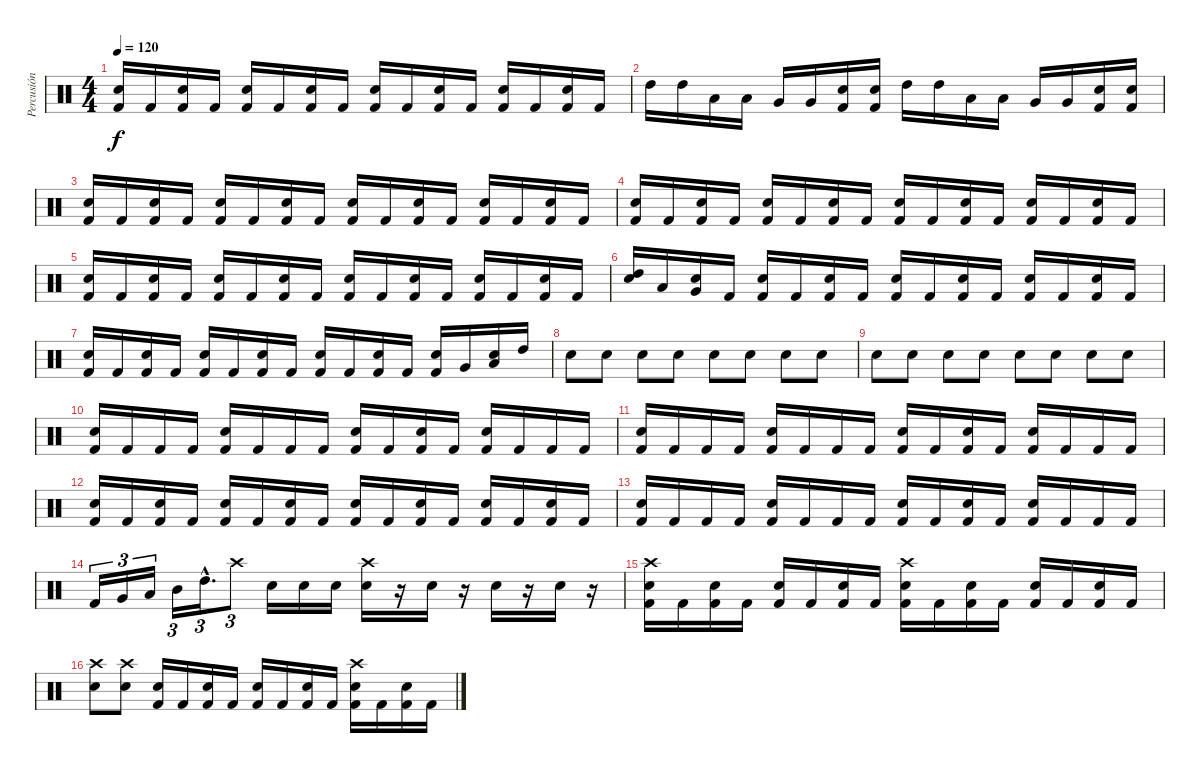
\track ("Percusión" "Percusión") {instrument percussion}
\staff {score}
\articulation defaults
\ts (4 4)
\tempo 120
\clef neutral
\ks c
("Kick (hit) 2" "Electric Snare (hit)").16{dy f} "Kick (hit) 2".16 ("Kick (hit) 2" "Electric Snare (hit)").16 "Kick (hit) 2".16 ("Kick (hit) 2" "Electric Snare (hit)").16 "Kick (hit) 2".16 ("Kick (hit) 2" "Electric Snare (hit)").16 "Kick (hit) 2".16 ("Kick (hit) 2" "Electric Snare (hit)").16 "Kick (hit) 2".16 ("Kick (hit) 2" "Electric Snare (hit)").16 "Kick (hit) 2".16 ("Kick (hit) 2" "Electric Snare (hit)").16 "Kick (hit) 2".16 ("Kick (hit) 2" "Electric Snare (hit)").16 "Kick (hit) 2".16 |
"High Tom (hit)".16 "High Tom (hit)".16 "Low Tom (hit)".16 "Low Tom (hit)".16 "Very Low Tom (hit)".16 "Very Low Tom (hit)".16 ("Kick (hit) 2" "Electric Snare (hit)").16 ("Kick (hit) 2" "Electric Snare (hit)").16 "High Tom (hit)".16 "High Tom (hit)".16 "Low Tom (hit)".16 "Low Tom (hit)".16 "Very Low Tom (hit)".16 "Very Low Tom (hit)".16 ("Kick (hit) 2" "Electric Snare (hit)").16 ("Kick (hit) 2" "Electric Snare (hit)").16 |
("Kick (hit) 2" "Electric Snare (hit)").16 "Kick (hit) 2".16 ("Kick (hit) 2" "Electric Snare (hit)").16 "Kick (hit) 2".16 ("Kick (hit) 2" "Electric Snare (hit)").16 "Kick (hit) 2".16 ("Kick (hit) 2" "Electric Snare (hit)").16 "Kick (hit) 2".16 ("Kick (hit) 2" "Electric Snare (hit)").16 "Kick (hit) 2".16 ("Kick (hit) 2" "Electric Snare (hit)").16 "Kick (hit) 2".16 ("Kick (hit) 2" "Electric Snare (hit)").16 "Kick (hit) 2".16 ("Kick (hit) 2" "Electric Snare (hit)").16 "Kick (hit) 2".16 |
("Kick (hit) 2" "Electric Snare (hit)").16 "Kick (hit) 2".16 ("Kick (hit) 2" "Electric Snare (hit)").16 "Kick (hit) 2".16 ("Kick (hit) 2" "Electric Snare (hit)").16 "Kick (hit) 2".16 ("Kick (hit) 2" "Electric Snare (hit)").16 "Kick (hit) 2".16 ("Kick (hit) 2" "Electric Snare (hit)").16 "Kick (hit) 2".16 ("Kick (hit) 2" "Electric Snare (hit)").16 "Kick (hit) 2".16 ("Kick (hit) 2" "Electric Snare (hit)").16 "Kick (hit) 2".16 ("Kick (hit) 2" "Electric Snare (hit)").16 "Kick (hit) 2".16 |
("Kick (hit) 2" "Electric Snare (hit)").16 "Kick (hit) 2".16 ("Kick (hit) 2" "Electric Snare (hit)").16 "Kick (hit) 2".16 ("Kick (hit) 2" "Electric Snare (hit)").16 "Kick (hit) 2".16 ("Kick (hit) 2" "Electric Snare (hit)").16 "Kick (hit) 2".16 ("Kick (hit) 2" "Electric Snare (hit)").16 "Kick (hit) 2".16 ("Kick (hit) 2" "Electric Snare (hit)").16 "Kick (hit) 2".16 ("Kick (hit) 2" "Electric Snare (hit)").16 "Kick (hit) 2".16 ("Kick (hit) 2" "Electric Snare (hit)").16 "Kick (hit) 2".16 |
("High Tom (hit)" "Electric Snare (hit)").16 "Low Tom (hit)".16 ("Very Low Tom (hit)" "Electric Snare (hit)").16 "Kick (hit) 2".16 ("Kick (hit) 2" "Electric Snare (hit)").16 "Kick (hit) 2".16 ("Kick (hit) 2" "Electric Snare (hit)").16 "Kick (hit) 2".16 ("Kick (hit) 2" "Electric Snare (hit)").16 "Kick (hit) 2".16 ("Kick (hit) 2" "Electric Snare (hit)").16 "Kick (hit) 2".16 ("Kick (hit) 2" "Electric Snare (hit)").16 "Kick (hit) 2".16 ("Kick (hit) 2" "Electric Snare (hit)").16 "Kick (hit) 2".16 |
("Kick (hit) 2" "Electric Snare (hit)").16 "Kick (hit) 2".16 ("Kick (hit) 2" "Electric Snare (hit)").16 "Kick (hit) 2".16 ("Kick (hit) 2" "Electric Snare (hit)").16 "Kick (hit) 2".16 ("Kick (hit) 2" "Electric Snare (hit)").16 "Kick (hit) 2".16 ("Kick (hit) 2" "Electric Snare (hit)").16 "Kick (hit) 2".16 ("Kick (hit) 2" "Electric Snare (hit)").16 "Kick (hit) 2".16 ("Kick (hit) 2" "Electric Snare (hit)").16 "Very Low Tom (hit)".16 ("Low Tom (hit)" "Electric Snare (hit)").16 "High Tom (hit)".16 |
"Electric Snare (hit)".8 "Electric Snare (hit)".8 "Electric Snare (hit)".8 "Electric Snare (hit)".8 "Electric Snare (hit)".8 "Electric Snare (hit)".8 "Electric Snare (hit)".8 "Electric Snare (hit)".8 |
"Electric Snare (hit)".8 "Electric Snare (hit)".8 "Electric Snare (hit)".8 "Electric Snare (hit)".8 "Electric Snare (hit)".8 "Electric Snare (hit)".8 "Electric Snare (hit)".8 "Electric Snare (hit)".8 |
("Kick (hit) 2" "Electric Snare (hit)").16 "Kick (hit) 2".16 "Kick (hit) 2".16 "Kick (hit) 2".16 ("Kick (hit) 2" "Electric Snare (hit)").16 "Kick (hit) 2".16 "Kick (hit) 2".16 "Kick (hit) 2".16 ("Kick (hit) 2" "Electric Snare (hit)").16 "Kick (hit) 2".16 ("Kick (hit) 2" "Electric Snare (hit)").16 "Kick (hit) 2".16 ("Kick (hit) 2" "Electric Snare (hit)").16 "Kick (hit) 2".16 "Kick (hit) 2".16 "Kick (hit) 2".16 |
("Kick (hit) 2" "Electric Snare (hit)").16 "Kick (hit) 2".16 "Kick (hit) 2".16 "Kick (hit) 2".16 ("Kick (hit) 2" "Electric Snare (hit)").16 "Kick (hit) 2".16 "Kick (hit) 2".16 "Kick (hit) 2".16 ("Kick (hit) 2" "Electric Snare (hit)").16 "Kick (hit) 2".16 ("Kick (hit) 2" "Electric Snare (hit)").16 "Kick (hit) 2".16 ("Kick (hit) 2" "Electric Snare (hit)").16 "Kick (hit) 2".16 "Kick (hit) 2".16 "Kick (hit) 2".16 |
("Kick (hit) 2" "Electric Snare (hit)").16 "Kick (hit) 2".16 ("Kick (hit) 2" "Electric Snare (hit)").16 "Kick (hit) 2".16 ("Kick (hit) 2" "Electric Snare (hit)").16 "Kick (hit) 2".16 ("Kick (hit) 2" "Electric Snare (hit)").16 "Kick (hit) 2".16 ("Kick (hit) 2" "Electric Snare (hit)").16 "Kick (hit) 2".16 ("Kick (hit) 2" "Electric Snare (hit)").16 "Kick (hit) 2".16 ("Kick (hit) 2" "Electric Snare (hit)").16 "Kick (hit) 2".16 ("Kick (hit) 2" "Electric Snare (hit)").16 "Kick (hit) 2".16 |
("Kick (hit) 2" "Electric Snare (hit)").16 "Kick (hit) 2".16 "Kick (hit) 2".16 "Kick (hit) 2".16 ("Kick (hit) 2" "Electric Snare (hit)").16 "Kick (hit) 2".16 "Kick (hit) 2".16 "Kick (hit) 2".16 ("Kick (hit) 2" "Electric Snare (hit)").16 "Kick (hit) 2".16 ("Kick (hit) 2" "Electric Snare (hit)").16 "Kick (hit) 2".16 ("Kick (hit) 2" "Electric Snare (hit)").16 "Kick (hit) 2".16 "Kick (hit) 2".16 "Kick (hit) 2".16 |
"Kick (hit) 2".16{tu (3 2)} "Very Low Tom (hit)".16{tu (3 2)} "Low Tom (hit)".16{tu (3 2)} "Mid Tom (hit)".16{tu (3 2)} "High Tom (hit)"{hac}.16{d tu (3 2)} "Crash high (hit)".8{tu (3 2)} "Electric Snare (hit)".16 "Electric Snare (hit)".16 "Electric Snare (hit)".16 ("Crash high (hit)" "Electric Snare (hit)").16 r.16 "Electric Snare (hit)".16 r.16 "Electric Snare (hit)".16 r.16 "Electric Snare (hit)".16 r.16 |
("Crash high (hit)" "Kick (hit) 2" "Electric Snare (hit)").16 "Kick (hit) 2".16 ("Kick (hit) 2" "Electric Snare (hit)").16 "Kick (hit) 2".16 ("Kick (hit) 2" "Electric Snare (hit)").16 "Kick (hit) 2".16 ("Kick (hit) 2" "Electric Snare (hit)").16 "Kick (hit) 2".16 ("Crash high (hit)" "Kick (hit) 2" "Electric Snare (hit)").16 "Kick (hit) 2".16 ("Kick (hit) 2" "Electric Snare (hit)").16 "Kick (hit) 2".16 ("Kick (hit) 2" "Electric Snare (hit)").16 "Kick (hit) 2".16 ("Kick (hit) 2" "Electric Snare (hit)").16 "Kick (hit) 2".16 |
("Crash high (hit)" "Electric Snare (hit)").8 ("Crash high (hit)" "Electric Snare (hit)").8 ("Kick (hit) 2" "Electric Snare (hit)").16 "Kick (hit) 2".16 ("Kick (hit) 2" "Electric Snare (hit)").16 "Kick (hit) 2".16 ("Kick (hit) 2" "Electric Snare (hit)").16 "Kick (hit) 2".16 ("Kick (hit) 2" "Electric Snare (hit)").16 "Kick (hit) 2".16 ("Crash high (hit)" "Kick (hit) 2" "Electric Snare (hit)").16 "Kick (hit) 2".16 ("Kick (hit) 2" "Electric Snare (hit)").16 "Kick (hit) 2".16
